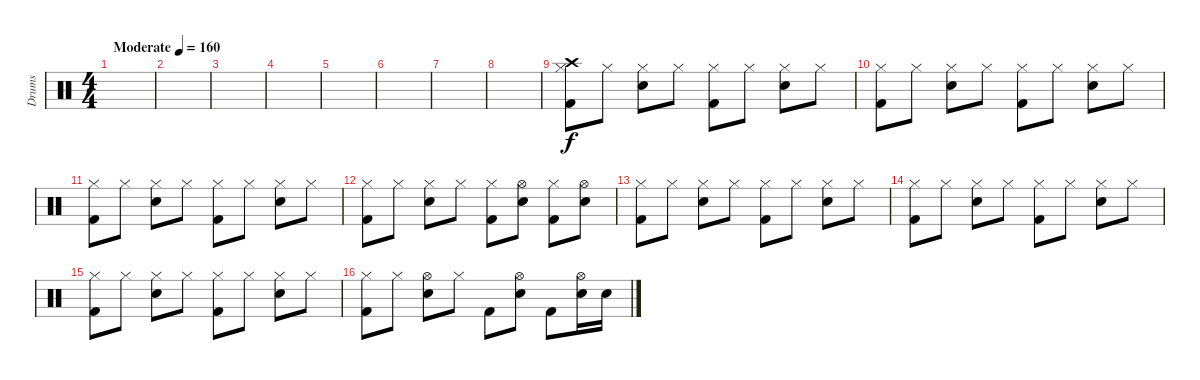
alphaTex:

\track ("Drums" "Drums") {instrument percussion}
\staff {score}
\articulation defaults
\ts (4 4)
\tempo (160 "Moderate")
\clef neutral
\ks c
|
|
|
|
|
|
|
|
("Crash high (hit)" "Hi-Hat (closed)" "Kick (hit) 2").8 "Hi-Hat (closed)".8 ("Hi-Hat (closed)" "Snare (hit) 2").8 "Hi-Hat (closed)".8 ("Hi-Hat (closed)" "Kick (hit) 2").8 "Hi-Hat (closed)".8 ("Hi-Hat (closed)" "Snare (hit) 2").8 "Hi-Hat (closed)".8 |
("Hi-Hat (closed)" "Kick (hit) 2").8 "Hi-Hat (closed)".8 ("Hi-Hat (closed)" "Snare (hit) 2").8 "Hi-Hat (closed)".8 ("Hi-Hat (closed)" "Kick (hit) 2").8 "Hi-Hat (closed)".8 ("Hi-Hat (closed)" "Snare (hit) 2").8 "Hi-Hat (closed)".8 |
("Hi-Hat (closed)" "Kick (hit) 2").8 "Hi-Hat (closed)".8 ("Hi-Hat (closed)" "Snare (hit) 2").8 "Hi-Hat (closed)".8 ("Hi-Hat (closed)" "Kick (hit) 2").8 "Hi-Hat (closed)".8 ("Hi-Hat (closed)" "Snare (hit) 2").8 "Hi-Hat (closed)".8 |
("Hi-Hat (closed)" "Kick (hit) 2").8 "Hi-Hat (closed)".8 ("Hi-Hat (closed)" "Snare (hit) 2").8 "Hi-Hat (closed)".8 ("Hi-Hat (closed)" "Kick (hit) 2").8 ("Hi-Hat (open)" "Snare (hit) 2").8 ("Hi-Hat (closed)" "Kick (hit) 2").8 ("Hi-Hat (open)" "Snare (hit) 2").8 |
("Hi-Hat (closed)" "Kick (hit) 2").8 "Hi-Hat (closed)".8 ("Hi-Hat (closed)" "Snare (hit) 2").8 "Hi-Hat (closed)".8 ("Hi-Hat (closed)" "Kick (hit) 2").8 "Hi-Hat (closed)".8 ("Hi-Hat (closed)" "Snare (hit) 2").8 "Hi-Hat (closed)".8 |
("Hi-Hat (closed)" "Kick (hit) 2").8 "Hi-Hat (closed)".8 ("Hi-Hat (closed)" "Snare (hit) 2").8 "Hi-Hat (closed)".8 ("Hi-Hat (closed)" "Kick (hit) 2").8 "Hi-Hat (closed)".8 ("Hi-Hat (closed)" "Snare (hit) 2").8 "Hi-Hat (closed)".8 |
("Hi-Hat (closed)" "Kick (hit) 2").8 "Hi-Hat (closed)".8 ("Hi-Hat (closed)" "Snare (hit) 2").8 "Hi-Hat (closed)".8 ("Hi-Hat (closed)" "Kick (hit) 2").8 "Hi-Hat (closed)".8 ("Hi-Hat (closed)" "Snare (hit) 2").8 "Hi-Hat (closed)".8 |
("Hi-Hat (closed)" "Kick (hit) 2").8 "Hi-Hat (closed)".8 ("Hi-Hat (open)" "Snare (hit) 2").8 "Hi-Hat (closed)".8 "Kick (hit) 2".8 ("Hi-Hat (open)" "Snare (hit) 2").8 "Kick (hit) 2".8 ("Hi-Hat (open)" "Snare (hit) 2").16 "Snare (hit) 2".16
